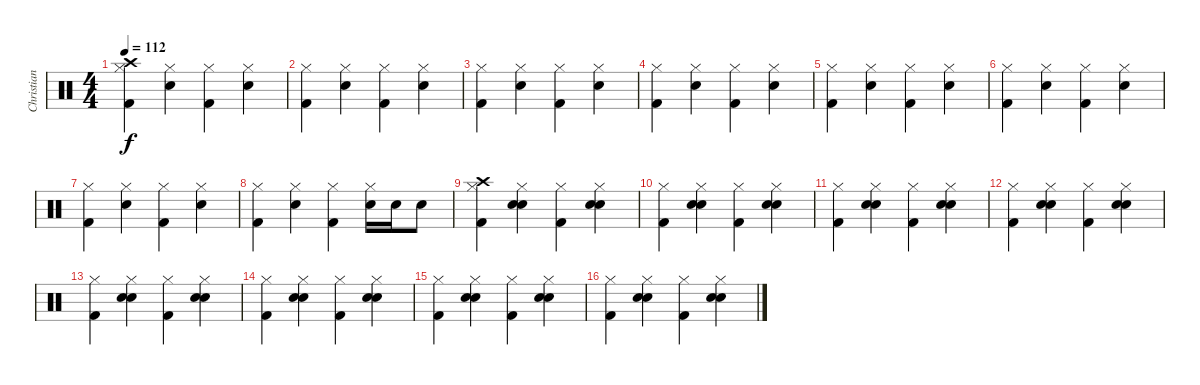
\track ("Christian Paredes" "Christian ") {instrument percussion}
\staff {score}
\articulation defaults
\ts (4 4)
\tempo 112
\clef neutral
\ks c
("Hi-Hat (closed)" "Crash high (hit)" "Kick (hit) 2").4{dy f volume 11} ("Hi-Hat (closed)" "Electric Snare (hit)").4 ("Hi-Hat (closed)" "Kick (hit) 2").4 ("Hi-Hat (closed)" "Electric Snare (hit)").4 |
("Hi-Hat (closed)" "Kick (hit) 2").4 ("Hi-Hat (closed)" "Electric Snare (hit)").4 ("Hi-Hat (closed)" "Kick (hit) 2").4 ("Hi-Hat (closed)" "Electric Snare (hit)").4 |
("Hi-Hat (closed)" "Kick (hit) 2").4 ("Hi-Hat (closed)" "Electric Snare (hit)").4 ("Hi-Hat (closed)" "Kick (hit) 2").4 ("Hi-Hat (closed)" "Electric Snare (hit)").4 |
("Hi-Hat (closed)" "Kick (hit) 2").4 ("Hi-Hat (closed)" "Electric Snare (hit)").4 ("Hi-Hat (closed)" "Kick (hit) 2").4 ("Hi-Hat (closed)" "Electric Snare (hit)").4 |
("Hi-Hat (closed)" "Kick (hit) 2").4 ("Hi-Hat (closed)" "Electric Snare (hit)").4 ("Hi-Hat (closed)" "Kick (hit) 2").4 ("Hi-Hat (closed)" "Electric Snare (hit)").4 |
("Hi-Hat (closed)" "Kick (hit) 2").4 ("Hi-Hat (closed)" "Electric Snare (hit)").4 ("Hi-Hat (closed)" "Kick (hit) 2").4 ("Hi-Hat (closed)" "Electric Snare (hit)").4 |
("Hi-Hat (closed)" "Kick (hit) 2").4 ("Hi-Hat (closed)" "Electric Snare (hit)").4 ("Hi-Hat (closed)" "Kick (hit) 2").4 ("Hi-Hat (closed)" "Electric Snare (hit)").4 |
("Hi-Hat (closed)" "Kick (hit) 2").4 ("Hi-Hat (closed)" "Electric Snare (hit)").4 ("Hi-Hat (closed)" "Kick (hit) 2").4 ("Hi-Hat (closed)" "Electric Snare (hit)").16 "Electric Snare (hit)".16 "Electric Snare (hit)".8 |
("Hi-Hat (closed)" "Crash high (hit)" "Kick (hit) 2").4{volume 13} ("Hi-Hat (closed)" "Electric Snare (hit)" "Hand Clap (hit)").4 ("Hi-Hat (closed)" "Kick (hit) 2").4 ("Hi-Hat (closed)" "Electric Snare (hit)" "Hand Clap (hit)").4 |
("Hi-Hat (closed)" "Kick (hit) 2").4 ("Hi-Hat (closed)" "Electric Snare (hit)" "Hand Clap (hit)").4 ("Hi-Hat (closed)" "Kick (hit) 2").4 ("Hi-Hat (closed)" "Electric Snare (hit)" "Hand Clap (hit)").4 |
("Hi-Hat (closed)" "Kick (hit) 2").4 ("Hi-Hat (closed)" "Electric Snare (hit)" "Hand Clap (hit)").4 ("Hi-Hat (closed)" "Kick (hit) 2").4 ("Hi-Hat (closed)" "Electric Snare (hit)" "Hand Clap (hit)").4 |
("Hi-Hat (closed)" "Kick (hit) 2").4 ("Hi-Hat (closed)" "Electric Snare (hit)" "Hand Clap (hit)").4 ("Hi-Hat (closed)" "Kick (hit) 2").4 ("Hi-Hat (closed)" "Electric Snare (hit)" "Hand Clap (hit)").4 |
("Hi-Hat (closed)" "Kick (hit) 2").4 ("Hi-Hat (closed)" "Electric Snare (hit)" "Hand Clap (hit)").4 ("Hi-Hat (closed)" "Kick (hit) 2").4 ("Hi-Hat (closed)" "Electric Snare (hit)" "Hand Clap (hit)").4 |
("Hi-Hat (closed)" "Kick (hit) 2").4 ("Hi-Hat (closed)" "Electric Snare (hit)" "Hand Clap (hit)").4 ("Hi-Hat (closed)" "Kick (hit) 2").4 ("Hi-Hat (closed)" "Electric Snare (hit)" "Hand Clap (hit)").4 |
("Hi-Hat (closed)" "Kick (hit) 2").4 ("Hi-Hat (closed)" "Electric Snare (hit)" "Hand Clap (hit)").4 ("Hi-Hat (closed)" "Kick (hit) 2").4 ("Hi-Hat (closed)" "Electric Snare (hit)" "Hand Clap (hit)").4 |
("Hi-Hat (closed)" "Kick (hit) 2").4 ("Hi-Hat (closed)" "Electric Snare (hit)" "Hand Clap (hit)").4 ("Hi-Hat (closed)" "Kick (hit) 2").4 ("Hi-Hat (closed)" "Electric Snare (hit)" "Hand Clap (hit)").4
